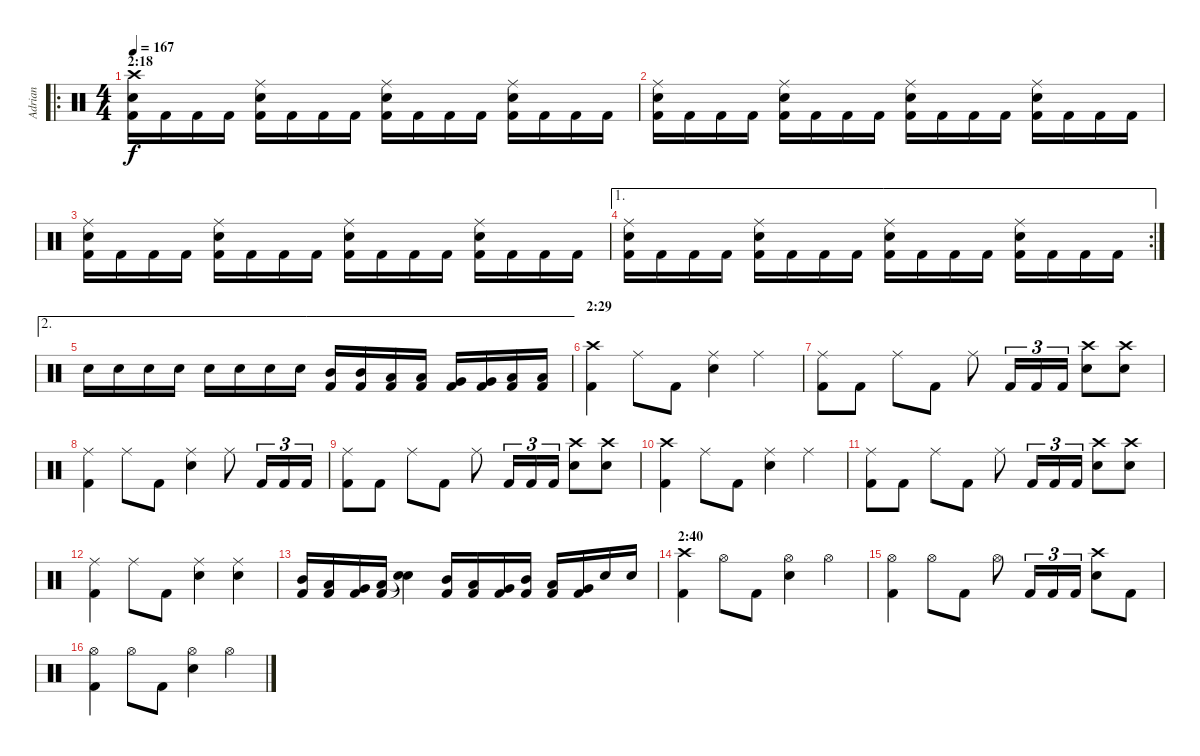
\track ("Adrian" "Adrian") {instrument percussion}
\staff {score}
\articulation defaults
\ro
\ts (4 4)
\section ("" "2:18")
\tempo 167
\clef neutral
\ks c
("Kick (hit) 2" "Snare (hit) 2" "Crash high (hit)").16{dy f} "Kick (hit) 2".16 "Kick (hit) 2".16 "Kick (hit) 2".16 ("Kick (hit) 2" "Snare (hit) 2" "Ride (middle)").16 "Kick (hit) 2".16 "Kick (hit) 2".16 "Kick (hit) 2".16 ("Kick (hit) 2" "Snare (hit) 2" "Ride (middle)").16 "Kick (hit) 2".16 "Kick (hit) 2".16 "Kick (hit) 2".16 ("Kick (hit) 2" "Snare (hit) 2" "Ride (middle)").16 "Kick (hit) 2".16 "Kick (hit) 2".16 "Kick (hit) 2".16 |
("Kick (hit) 2" "Snare (hit) 2" "Ride (middle)").16 "Kick (hit) 2".16 "Kick (hit) 2".16 "Kick (hit) 2".16 ("Kick (hit) 2" "Snare (hit) 2" "Ride (middle)").16 "Kick (hit) 2".16 "Kick (hit) 2".16 "Kick (hit) 2".16 ("Kick (hit) 2" "Snare (hit) 2" "Ride (middle)").16 "Kick (hit) 2".16 "Kick (hit) 2".16 "Kick (hit) 2".16 ("Kick (hit) 2" "Snare (hit) 2" "Ride (middle)").16 "Kick (hit) 2".16 "Kick (hit) 2".16 "Kick (hit) 2".16 |
("Kick (hit) 2" "Snare (hit) 2" "Ride (middle)").16 "Kick (hit) 2".16 "Kick (hit) 2".16 "Kick (hit) 2".16 ("Kick (hit) 2" "Snare (hit) 2" "Ride (middle)").16 "Kick (hit) 2".16 "Kick (hit) 2".16 "Kick (hit) 2".16 ("Kick (hit) 2" "Snare (hit) 2" "Ride (middle)").16 "Kick (hit) 2".16 "Kick (hit) 2".16 "Kick (hit) 2".16 ("Kick (hit) 2" "Snare (hit) 2" "Ride (middle)").16 "Kick (hit) 2".16 "Kick (hit) 2".16 "Kick (hit) 2".16 |
\ae 1
\rc 2
("Kick (hit) 2" "Snare (hit) 2" "Ride (middle)").16 "Kick (hit) 2".16 "Kick (hit) 2".16 "Kick (hit) 2".16 ("Kick (hit) 2" "Snare (hit) 2" "Ride (middle)").16 "Kick (hit) 2".16 "Kick (hit) 2".16 "Kick (hit) 2".16 ("Kick (hit) 2" "Snare (hit) 2" "Ride (middle)").16 "Kick (hit) 2".16 "Kick (hit) 2".16 "Kick (hit) 2".16 ("Kick (hit) 2" "Snare (hit) 2" "Ride (middle)").16 "Kick (hit) 2".16 "Kick (hit) 2".16 "Kick (hit) 2".16 |
\ae 2 "Snare (hit) 2".16 "Snare (hit) 2".16 "Snare (hit) 2".16 "Snare (hit) 2".16 "Snare (hit) 2".16 "Snare (hit) 2".16 "Snare (hit) 2".16 "Snare (hit) 2".16
("Kick (hit) 2" "Mid Tom (hit)").16 ("Kick (hit) 2" "Mid Tom (hit)").16 ("Kick (hit) 2" "Low Tom (hit)").16 ("Kick (hit) 2" "Low Tom (hit)").16 ("Kick (hit) 2" "Very Low Tom (hit)").16 ("Kick (hit) 2" "Very Low Tom (hit)").16 ("Kick (hit) 2" "Low Floor Tom (hit)").16 ("Kick (hit) 2" "Low Floor Tom (hit)").16 |
\section ("" "2:29")
("Kick (hit) 2" "Crash high (hit)").4 "Ride (middle)".8 "Kick (hit) 2".8 ("Snare (hit) 2" "Ride (middle)").4 "Ride (middle)".4 |
("Kick (hit) 2" "Ride (middle)").8 "Kick (hit) 2".8 "Ride (middle)".8 "Kick (hit) 2".8 "Ride (middle)".8 "Kick (hit) 2".16{tu (3 2)} "Kick (hit) 2".16{tu (3 2)} "Kick (hit) 2".16{tu (3 2)} ("Snare (hit) 2" "Crash high (hit)").8 ("Snare (hit) 2" "Crash high (hit)").8 |
("Kick (hit) 2" "Ride (middle)").4 "Ride (middle)".8 "Kick (hit) 2".8 ("Snare (hit) 2" "Ride (middle)").4 "Ride (middle)".8 "Kick (hit) 2".16{tu (3 2)} "Kick (hit) 2".16{tu (3 2)} "Kick (hit) 2".16{tu (3 2)} |
("Kick (hit) 2" "Ride (middle)").8 "Kick (hit) 2".8 "Ride (middle)".8 "Kick (hit) 2".8 "Ride (middle)".8 "Kick (hit) 2".16{tu (3 2)} "Kick (hit) 2".16{tu (3 2)} "Kick (hit) 2".16{tu (3 2)} ("Snare (hit) 2" "Crash high (hit)").8 ("Snare (hit) 2" "Crash high (hit)").8 |
("Kick (hit) 2" "Crash high (hit)").4 "Ride (middle)".8 "Kick (hit) 2".8 ("Snare (hit) 2" "Ride (middle)").4 "Ride (middle)".4 |
("Kick (hit) 2" "Ride (middle)").8 "Kick (hit) 2".8 "Ride (middle)".8 "Kick (hit) 2".8 "Ride (middle)".8 "Kick (hit) 2".16{tu (3 2)} "Kick (hit) 2".16{tu (3 2)} "Kick (hit) 2".16{tu (3 2)} ("Snare (hit) 2" "Crash high (hit)").8 ("Snare (hit) 2" "Crash high (hit)").8 |
("Kick (hit) 2" "Ride (middle)").4 "Ride (middle)".8 "Kick (hit) 2".8 ("Snare (hit) 2" "Ride (middle)").4 ("Snare (hit) 2" "Ride (middle)").4 |
("Kick (hit) 2" "Mid Tom (hit)").16 ("Kick (hit) 2" "Low Tom (hit)").16 ("Kick (hit) 2" "Very Low Tom (hit)").16 ("Kick (hit) 2" "Low Floor Tom (hit)").16 ("Snare (hit)"{t} "Snare (hit)"{t}).4 ("Kick (hit) 2" "Mid Tom (hit)").16 ("Kick (hit) 2" "Low Tom (hit)").16 ("Kick (hit) 2" "Very Low Tom (hit)").16 ("Kick (hit) 2" "Mid Tom (hit)").16 ("Kick (hit) 2" "Low Tom (hit)").16 ("Kick (hit) 2" "Very Low Tom (hit)").16 "Snare (hit) 2".16 "Snare (hit) 2".16 |
\section ("" "2:40")
("Kick (hit) 2" "Crash high (hit)").4 "Hi-Hat (open)".8 "Kick (hit) 2".8 ("Snare (hit) 2" "Hi-Hat (open)").4 "Hi-Hat (open)".4 |
("Kick (hit) 2" "Hi-Hat (open)").4 "Hi-Hat (open)".8 "Kick (hit) 2".8 "Hi-Hat (open)".8 "Kick (hit) 2".16{tu (3 2)} "Kick (hit) 2".16{tu (3 2)} "Kick (hit) 2".16{tu (3 2)} ("Snare (hit) 2" "Crash high (hit)").8 "Kick (hit) 2".8 |
("Kick (hit) 2" "Hi-Hat (open)").4 "Hi-Hat (open)".8 "Kick (hit) 2".8 ("Snare (hit) 2" "Hi-Hat (open)").4 "Hi-Hat (open)".4
